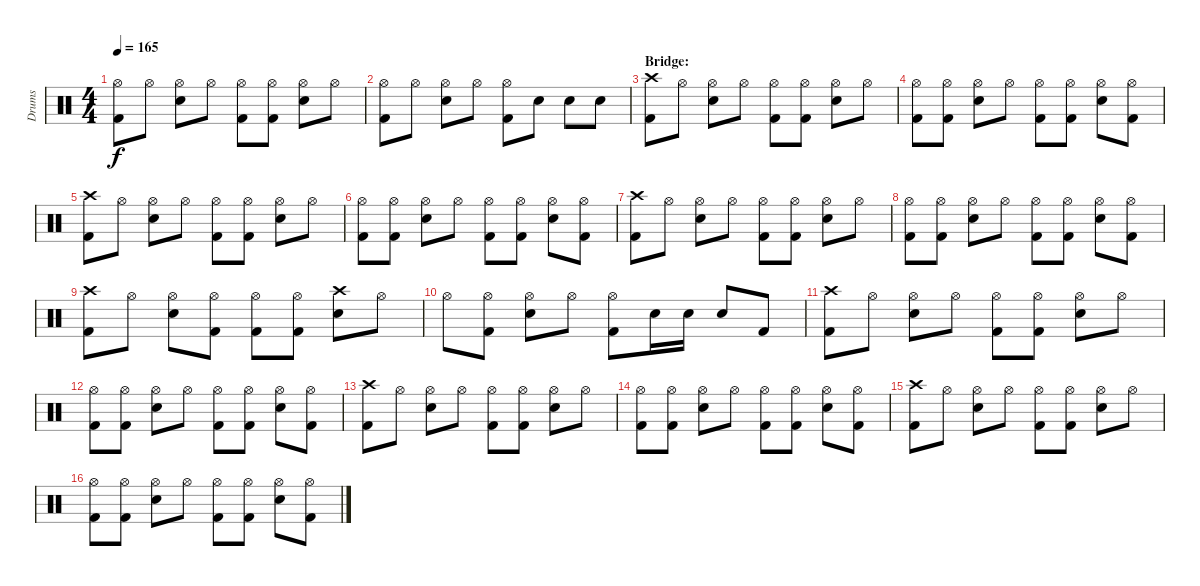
\track ("Drums" "Drums") {instrument percussion}
\staff {score}
\articulation defaults
\ts (4 4)
\tempo 165
\clef neutral
\ks c
("Hi-Hat (open)" "Kick (hit) 2").8{dy f} "Hi-Hat (open)".8 ("Hi-Hat (open)" "Electric Snare (hit)").8 "Hi-Hat (open)".8 ("Hi-Hat (open)" "Kick (hit) 2").8 ("Hi-Hat (open)" "Kick (hit) 2").8 ("Hi-Hat (open)" "Electric Snare (hit)").8 "Hi-Hat (open)".8 |
("Hi-Hat (open)" "Kick (hit) 2").8 "Hi-Hat (open)".8 ("Hi-Hat (open)" "Electric Snare (hit)").8 "Hi-Hat (open)".8 ("Hi-Hat (open)" "Kick (hit) 2").8 "Electric Snare (hit)".8 "Electric Snare (hit)".8 "Electric Snare (hit)".8 |
\section ("" "Bridge:")
("Crash high (hit)" "Kick (hit) 2").8 "Hi-Hat (open)".8 ("Hi-Hat (open)" "Electric Snare (hit)").8 "Hi-Hat (open)".8 ("Hi-Hat (open)" "Kick (hit) 2").8 ("Hi-Hat (open)" "Kick (hit) 2").8 ("Hi-Hat (open)" "Electric Snare (hit)").8 "Hi-Hat (open)".8 |
("Hi-Hat (open)" "Kick (hit) 2").8 ("Hi-Hat (open)" "Kick (hit) 2").8 ("Hi-Hat (open)" "Electric Snare (hit)").8 "Hi-Hat (open)".8 ("Hi-Hat (open)" "Kick (hit) 2").8 ("Hi-Hat (open)" "Kick (hit) 2").8 ("Hi-Hat (open)" "Electric Snare (hit)").8 ("Hi-Hat (open)" "Kick (hit) 2").8 |
("Crash high (hit)" "Kick (hit) 2").8 "Hi-Hat (open)".8 ("Hi-Hat (open)" "Electric Snare (hit)").8 "Hi-Hat (open)".8 ("Hi-Hat (open)" "Kick (hit) 2").8 ("Hi-Hat (open)" "Kick (hit) 2").8 ("Hi-Hat (open)" "Electric Snare (hit)").8 "Hi-Hat (open)".8 |
("Hi-Hat (open)" "Kick (hit) 2").8 ("Hi-Hat (open)" "Kick (hit) 2").8 ("Hi-Hat (open)" "Electric Snare (hit)").8 "Hi-Hat (open)".8 ("Hi-Hat (open)" "Kick (hit) 2").8 ("Hi-Hat (open)" "Kick (hit) 2").8 ("Hi-Hat (open)" "Electric Snare (hit)").8 ("Hi-Hat (open)" "Kick (hit) 2").8 |
("Crash high (hit)" "Kick (hit) 2").8 "Hi-Hat (open)".8 ("Hi-Hat (open)" "Electric Snare (hit)").8 "Hi-Hat (open)".8 ("Hi-Hat (open)" "Kick (hit) 2").8 ("Hi-Hat (open)" "Kick (hit) 2").8 ("Hi-Hat (open)" "Electric Snare (hit)").8 "Hi-Hat (open)".8 |
("Hi-Hat (open)" "Kick (hit) 2").8 ("Hi-Hat (open)" "Kick (hit) 2").8 ("Hi-Hat (open)" "Electric Snare (hit)").8 "Hi-Hat (open)".8 ("Hi-Hat (open)" "Kick (hit) 2").8 ("Hi-Hat (open)" "Kick (hit) 2").8 ("Hi-Hat (open)" "Electric Snare (hit)").8 ("Hi-Hat (open)" "Kick (hit) 2").8 |
("Crash high (hit)" "Kick (hit) 2").8 "Hi-Hat (open)".8 ("Hi-Hat (open)" "Electric Snare (hit)").8 ("Hi-Hat (open)" "Kick (hit) 2").8 ("Hi-Hat (open)" "Kick (hit) 2").8 ("Hi-Hat (open)" "Kick (hit) 2").8 ("Crash high (hit)" "Electric Snare (hit)").8 "Hi-Hat (open)".8 |
"Hi-Hat (open)".8 ("Hi-Hat (open)" "Kick (hit) 2").8 ("Hi-Hat (open)" "Electric Snare (hit)").8 "Hi-Hat (open)".8 ("Hi-Hat (open)" "Kick (hit) 2").8 "Electric Snare (hit)".16 "Electric Snare (hit)".16 "Electric Snare (hit)".8 "Kick (hit) 2".8 |
("Crash high (hit)" "Kick (hit) 2").8 "Hi-Hat (open)".8 ("Hi-Hat (open)" "Electric Snare (hit)").8 "Hi-Hat (open)".8 ("Hi-Hat (open)" "Kick (hit) 2").8 ("Hi-Hat (open)" "Kick (hit) 2").8 ("Hi-Hat (open)" "Electric Snare (hit)").8 "Hi-Hat (open)".8 |
("Hi-Hat (open)" "Kick (hit) 2").8 ("Hi-Hat (open)" "Kick (hit) 2").8 ("Hi-Hat (open)" "Electric Snare (hit)").8 "Hi-Hat (open)".8 ("Hi-Hat (open)" "Kick (hit) 2").8 ("Hi-Hat (open)" "Kick (hit) 2").8 ("Hi-Hat (open)" "Electric Snare (hit)").8 ("Hi-Hat (open)" "Kick (hit) 2").8 |
("Crash high (hit)" "Kick (hit) 2").8 "Hi-Hat (open)".8 ("Hi-Hat (open)" "Electric Snare (hit)").8 "Hi-Hat (open)".8 ("Hi-Hat (open)" "Kick (hit) 2").8 ("Hi-Hat (open)" "Kick (hit) 2").8 ("Hi-Hat (open)" "Electric Snare (hit)").8 "Hi-Hat (open)".8 |
("Hi-Hat (open)" "Kick (hit) 2").8 ("Hi-Hat (open)" "Kick (hit) 2").8 ("Hi-Hat (open)" "Electric Snare (hit)").8 "Hi-Hat (open)".8 ("Hi-Hat (open)" "Kick (hit) 2").8 ("Hi-Hat (open)" "Kick (hit) 2").8 ("Hi-Hat (open)" "Electric Snare (hit)").8 ("Hi-Hat (open)" "Kick (hit) 2").8 |
("Crash high (hit)" "Kick (hit) 2").8 "Hi-Hat (open)".8 ("Hi-Hat (open)" "Electric Snare (hit)").8 "Hi-Hat (open)".8 ("Hi-Hat (open)" "Kick (hit) 2").8 ("Hi-Hat (open)" "Kick (hit) 2").8 ("Hi-Hat (open)" "Electric Snare (hit)").8 "Hi-Hat (open)".8 |
("Hi-Hat (open)" "Kick (hit) 2").8 ("Hi-Hat (open)" "Kick (hit) 2").8 ("Hi-Hat (open)" "Electric Snare (hit)").8 "Hi-Hat (open)".8 ("Hi-Hat (open)" "Kick (hit) 2").8 ("Hi-Hat (open)" "Kick (hit) 2").8 ("Hi-Hat (open)" "Electric Snare (hit)").8 ("Hi-Hat (open)" "Kick (hit) 2").8
